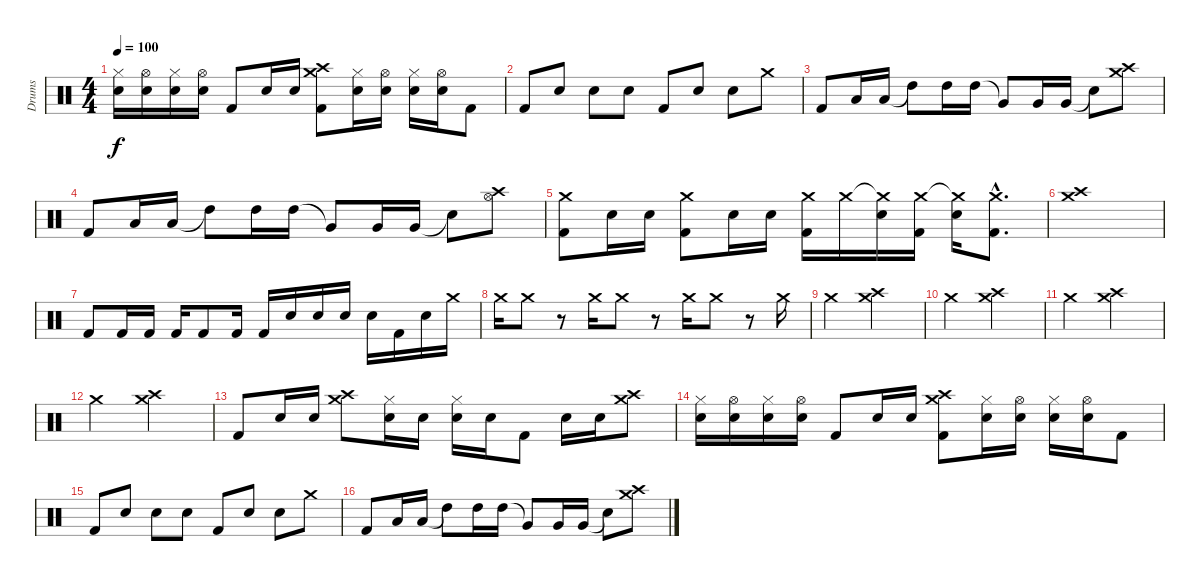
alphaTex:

\track ("Drums" "Drums") {instrument percussion}
\staff {score}
\articulation defaults
\ts (4 4)
\tempo 100
\clef neutral
\ks c
("Hi-Hat (closed)" "Snare (hit) 2").16{dy f} ("Hi-Hat (open)"{x} "Snare (hit) 2").16 ("Hi-Hat (closed)" "Snare (hit) 2").16 ("Hi-Hat (open)" "Snare (hit) 2").16 "Kick (hit) 2".8 "Snare (hit) 2".16 "Snare (hit) 2".16 ("Crash medium (hit)" "Crash high (hit)" "Kick (hit) 2").8 ("Hi-Hat (closed)" "Snare (hit) 2").16 ("Hi-Hat (open)"{x} "Snare (hit) 2").16 ("Hi-Hat (closed)" "Snare (hit) 2").16 ("Hi-Hat (open)" "Snare (hit) 2").16 "Kick (hit) 2".8 |
"Kick (hit) 2".8 "Snare (hit) 2".8 "Snare (hit) 2".8 "Snare (hit) 2".8 "Kick (hit) 2".8 "Snare (hit) 2".8 "Snare (hit) 2".8 "Crash medium (hit)".8 |
"Kick (hit) 2".8 "Low Floor Tom (hit)".16 "Low Floor Tom (hit)".16 "High Tom (hit)"{t}.8 "High Tom (hit)".16 "High Tom (hit)".16 "Very Low Tom (hit)"{t}.8 "Very Low Tom (hit)".16 "Very Low Tom (hit)".16 "Snare (hit)"{t}.8 ("Crash medium (hit)" "Crash high (hit)").8 |
"Kick (hit) 2".8 "Low Floor Tom (hit)".16 "Low Floor Tom (hit)".16 "High Tom (hit)"{t}.8 "High Tom (hit)".16 "High Tom (hit)".16 "Very Low Tom (hit)"{t}.8 "Very Low Tom (hit)".16 "Very Low Tom (hit)".16 "Snare (hit)"{t}.8 ("Crash high (hit)" "Hi-Hat (open)").8 |
("Crash medium (hit)" "Kick (hit) 2").8 "Snare (hit) 2".16 "Snare (hit) 2".16 ("Crash medium (hit)" "Kick (hit) 2").8 "Snare (hit) 2".16 "Snare (hit) 2".16 ("Crash medium (hit)" "Kick (hit) 2").16 "Crash medium (hit)".16 ("Crash medium (hit)"{t} "Snare (hit) 2").16 ("Crash medium (hit)" "Kick (hit) 2").16 ("Crash medium (hit)"{t} "Snare (hit) 2").16 ("Crash medium (hit)"{hac} "Kick (hit) 2"{hac}).8{d} |
("Crash medium (hit)" "Crash high (hit)").1 |
"Kick (hit) 2".8 "Kick (hit) 2".16 "Kick (hit) 2".16 "Kick (hit) 2".16 "Kick (hit) 2".8 "Kick (hit) 2".16 "Kick (hit) 2".16 "Snare (hit) 2".16 "Snare (hit) 2".16 "Snare (hit) 2".16 "Snare (hit) 2".16 "Kick (hit) 2".16 "Snare (hit) 2".16 "Crash medium (hit)".16 |
"Crash medium (hit)".16 "Crash medium (hit)".8 r.8 "Crash medium (hit)".16 "Crash medium (hit)".8 r.8 "Crash medium (hit)".16 "Crash medium (hit)".8 r.8 "Crash medium (hit)".16 |
"Crash medium (hit)".2 ("Crash medium (hit)" "Crash high (hit)").2 |
"Crash medium (hit)".2 ("Crash medium (hit)" "Crash high (hit)").2 |
"Crash medium (hit)".2 ("Crash medium (hit)" "Crash high (hit)").2 |
"Crash medium (hit)".2 ("Crash medium (hit)" "Crash high (hit)").2 |
"Kick (hit) 2".8 "Snare (hit) 2".16 "Snare (hit) 2".16 ("Crash medium (hit)" "Crash high (hit)").8 ("Hi-Hat (closed)" "Snare (hit) 2").16 "Snare (hit) 2".16 ("Hi-Hat (closed)" "Snare (hit) 2").16 "Snare (hit) 2".16 "Kick (hit) 2".8 "Snare (hit) 2".16 "Snare (hit) 2".16 ("Crash medium (hit)" "Crash high (hit)").8 |
("Hi-Hat (closed)" "Snare (hit) 2").16 ("Hi-Hat (open)"{x} "Snare (hit) 2").16 ("Hi-Hat (closed)" "Snare (hit) 2").16 ("Hi-Hat (open)" "Snare (hit) 2").16 "Kick (hit) 2".8 "Snare (hit) 2".16 "Snare (hit) 2".16 ("Crash medium (hit)" "Crash high (hit)" "Kick (hit) 2").8 ("Hi-Hat (closed)" "Snare (hit) 2").16 ("Hi-Hat (open)"{x} "Snare (hit) 2").16 ("Hi-Hat (closed)" "Snare (hit) 2").16 ("Hi-Hat (open)" "Snare (hit) 2").16 "Kick (hit) 2".8 |
"Kick (hit) 2".8 "Snare (hit) 2".8 "Snare (hit) 2".8 "Snare (hit) 2".8 "Kick (hit) 2".8 "Snare (hit) 2".8 "Snare (hit) 2".8 "Crash medium (hit)".8 |
"Kick (hit) 2".8 "Low Floor Tom (hit)".16 "Low Floor Tom (hit)".16 "High Tom (hit)"{t}.8 "High Tom (hit)".16 "High Tom (hit)".16 "Very Low Tom (hit)"{t}.8 "Very Low Tom (hit)".16 "Very Low Tom (hit)".16 "Snare (hit)"{t}.8 ("Crash medium (hit)" "Crash high (hit)").8
